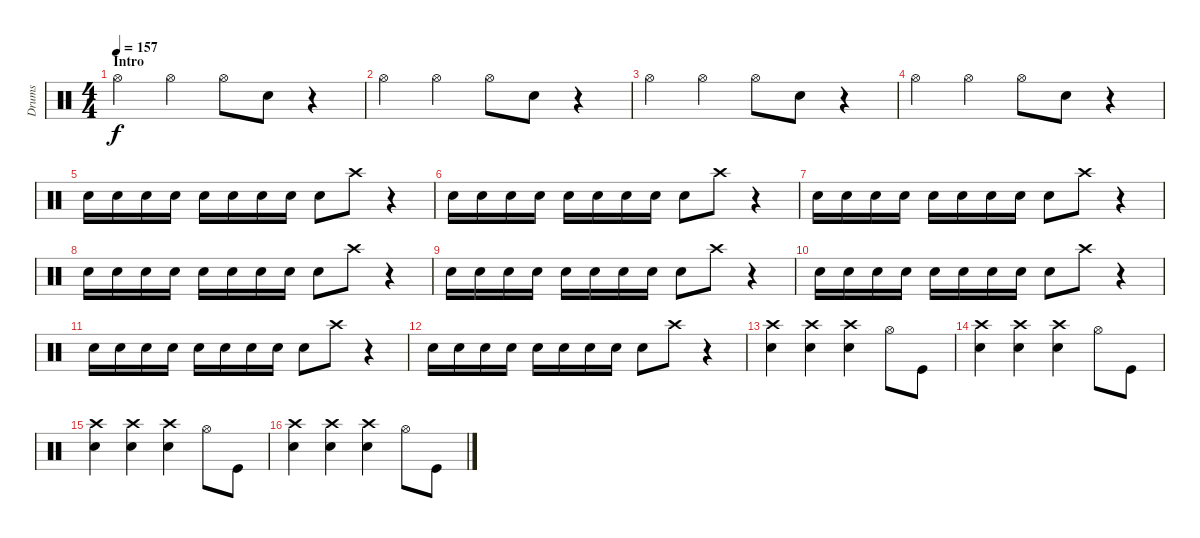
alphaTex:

\track ("Drums" "Drums") {instrument percussion}
\staff {score}
\articulation defaults
\ts (4 4)
\section ("" "Intro")
\tempo 157
\clef neutral
\ks c "Hi-Hat (open)".4{dy f} "Hi-Hat (open)".4 "Hi-Hat (open)".8 "Snare (hit) 2".8
r.4 |
"Hi-Hat (open)".4 "Hi-Hat (open)".4 "Hi-Hat (open)".8 "Snare (hit) 2".8 r.4 |
"Hi-Hat (open)".4 "Hi-Hat (open)".4 "Hi-Hat (open)".8 "Snare (hit) 2".8 r.4 |
"Hi-Hat (open)".4 "Hi-Hat (open)".4 "Hi-Hat (open)".8 "Snare (hit) 2".8 r.4 |
"Snare (hit) 2".16 "Snare (hit) 2".16 "Snare (hit) 2".16 "Snare (hit) 2".16 "Snare (hit) 2".16 "Snare (hit) 2".16 "Snare (hit) 2".16 "Snare (hit) 2".16 "Snare (hit) 2".8 "Crash high (hit)".8 r.4 |
"Snare (hit) 2".16 "Snare (hit) 2".16 "Snare (hit) 2".16 "Snare (hit) 2".16 "Snare (hit) 2".16 "Snare (hit) 2".16 "Snare (hit) 2".16 "Snare (hit) 2".16 "Snare (hit) 2".8 "Crash high (hit)".8 r.4 |
"Snare (hit) 2".16 "Snare (hit) 2".16 "Snare (hit) 2".16 "Snare (hit) 2".16 "Snare (hit) 2".16 "Snare (hit) 2".16 "Snare (hit) 2".16 "Snare (hit) 2".16 "Snare (hit) 2".8 "Crash high (hit)".8 r.4 |
"Snare (hit) 2".16 "Snare (hit) 2".16 "Snare (hit) 2".16 "Snare (hit) 2".16 "Snare (hit) 2".16 "Snare (hit) 2".16 "Snare (hit) 2".16 "Snare (hit) 2".16 "Snare (hit) 2".8 "Crash high (hit)".8 r.4 |
"Snare (hit) 2".16 "Snare (hit) 2".16 "Snare (hit) 2".16 "Snare (hit) 2".16 "Snare (hit) 2".16 "Snare (hit) 2".16 "Snare (hit) 2".16 "Snare (hit) 2".16 "Snare (hit) 2".8 "Crash high (hit)".8 r.4 |
"Snare (hit) 2".16 "Snare (hit) 2".16 "Snare (hit) 2".16 "Snare (hit) 2".16 "Snare (hit) 2".16 "Snare (hit) 2".16 "Snare (hit) 2".16 "Snare (hit) 2".16 "Snare (hit) 2".8 "Crash high (hit)".8 r.4 |
"Snare (hit) 2".16 "Snare (hit) 2".16 "Snare (hit) 2".16 "Snare (hit) 2".16 "Snare (hit) 2".16 "Snare (hit) 2".16 "Snare (hit) 2".16 "Snare (hit) 2".16 "Snare (hit) 2".8 "Crash high (hit)".8 r.4 |
"Snare (hit) 2".16 "Snare (hit) 2".16 "Snare (hit) 2".16 "Snare (hit) 2".16 "Snare (hit) 2".16 "Snare (hit) 2".16 "Snare (hit) 2".16 "Snare (hit) 2".16 "Snare (hit) 2".8 "Crash high (hit)".8 r.4 |
("Crash high (hit)" "Snare (hit) 2").4 ("Crash high (hit)" "Snare (hit) 2").4 ("Crash high (hit)" "Snare (hit) 2").4 "Hi-Hat (open)".8 "Kick (hit)".8 |
("Crash high (hit)" "Snare (hit) 2").4 ("Crash high (hit)" "Snare (hit) 2").4 ("Crash high (hit)" "Snare (hit) 2").4 "Hi-Hat (open)".8 "Kick (hit)".8 |
("Crash high (hit)" "Snare (hit) 2").4 ("Crash high (hit)" "Snare (hit) 2").4 ("Crash high (hit)" "Snare (hit) 2").4 "Hi-Hat (open)".8 "Kick (hit)".8 |
("Crash high (hit)" "Snare (hit) 2").4 ("Crash high (hit)" "Snare (hit) 2").4 ("Crash high (hit)" "Snare (hit) 2").4 "Hi-Hat (open)".8 "Kick (hit)".8
